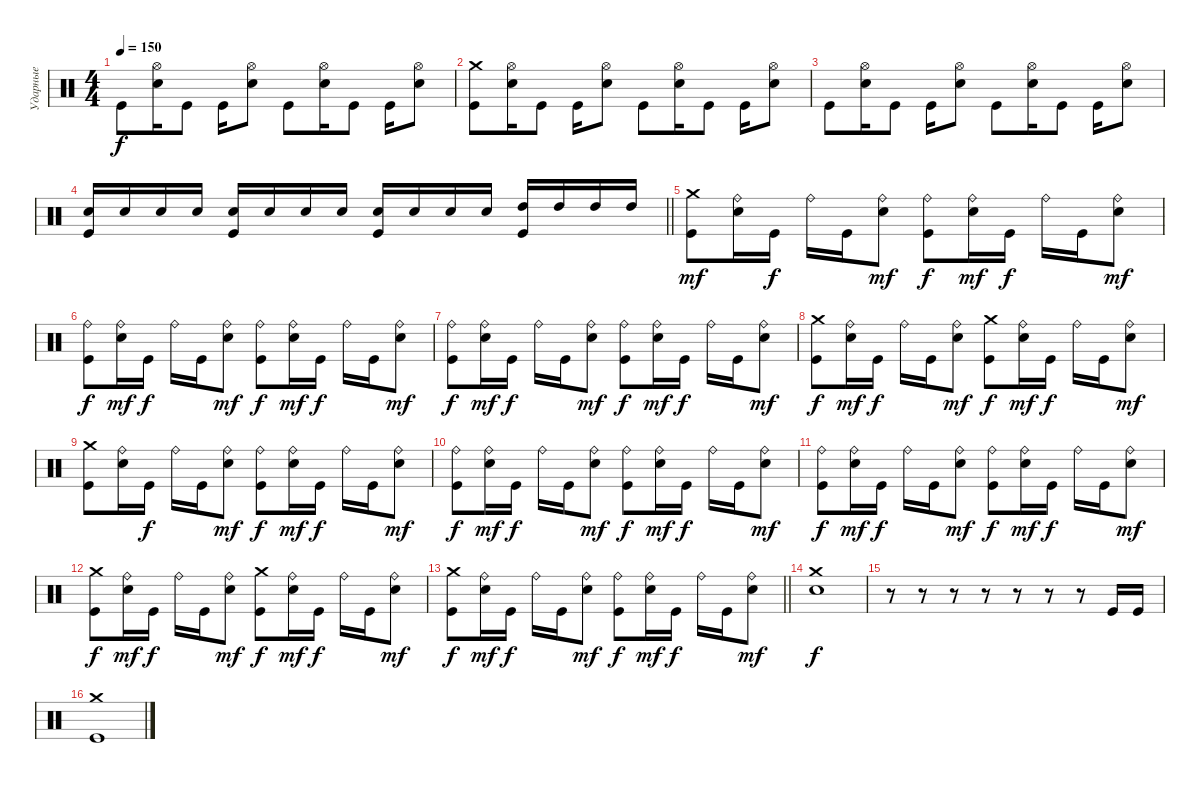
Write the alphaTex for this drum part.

\track ("Ударные" "Ударные") {instrument percussion}
\staff {score}
\articulation defaults
\ts (4 4)
\tempo 150
\clef neutral
\ks c "Kick (hit)".8{dy f}
("Hi-Hat (open)" "Electric Snare (hit)").16 "Kick (hit)".8 "Kick (hit)".16 ("Hi-Hat (open)" "Electric Snare (hit)").8 "Kick (hit)".8 ("Hi-Hat (open)" "Electric Snare (hit)").16 "Kick (hit)".8 "Kick (hit)".16 ("Hi-Hat (open)" "Electric Snare (hit)").8 |
("Crash medium (hit)" "Kick (hit)").8 ("Hi-Hat (open)" "Electric Snare (hit)").16 "Kick (hit)".8 "Kick (hit)".16 ("Hi-Hat (open)" "Electric Snare (hit)").8 "Kick (hit)".8 ("Hi-Hat (open)" "Electric Snare (hit)").16 "Kick (hit)".8 "Kick (hit)".16 ("Hi-Hat (open)" "Electric Snare (hit)").8 |
"Kick (hit)".8 ("Hi-Hat (open)" "Electric Snare (hit)").16 "Kick (hit)".8 "Kick (hit)".16 ("Hi-Hat (open)" "Electric Snare (hit)").8 "Kick (hit)".8 ("Hi-Hat (open)" "Electric Snare (hit)").16 "Kick (hit)".8 "Kick (hit)".16 ("Hi-Hat (open)" "Electric Snare (hit)").8 |
\barLineRight lightlight
("Electric Snare (hit)" "Kick (hit)").16 "Electric Snare (hit)".16 "Electric Snare (hit)".16 "Electric Snare (hit)".16 ("Electric Snare (hit)" "Kick (hit)").16 "Electric Snare (hit)".16 "Electric Snare (hit)".16 "Electric Snare (hit)".16 ("Electric Snare (hit)" "Kick (hit)").16 "Electric Snare (hit)".16 "Electric Snare (hit)".16 "Electric Snare (hit)".16 ("High Tom (hit)" "Kick (hit)").16 "High Tom (hit)".16 "High Tom (hit)".16 "High Tom (hit)".16 |
("Crash medium (hit)" "Kick (hit)").8{dy mf} ("Ride (bell)" "Electric Snare (hit)").16 "Kick (hit)".16{dy f} "Ride (bell)".16 "Kick (hit)".16 ("Ride (bell)" "Electric Snare (hit)").8{dy mf} ("Ride (bell)" "Kick (hit)").8{dy f} ("Ride (bell)" "Electric Snare (hit)").16{dy mf} "Kick (hit)".16{dy f} "Ride (bell)".16 "Kick (hit)".16 ("Ride (bell)" "Electric Snare (hit)").8{dy mf} |
("Ride (bell)" "Kick (hit)").8{dy f} ("Ride (bell)" "Electric Snare (hit)").16{dy mf} "Kick (hit)".16{dy f} "Ride (bell)".16 "Kick (hit)".16 ("Ride (bell)" "Electric Snare (hit)").8{dy mf} ("Ride (bell)" "Kick (hit)").8{dy f} ("Ride (bell)" "Electric Snare (hit)").16{dy mf} "Kick (hit)".16{dy f} "Ride (bell)".16 "Kick (hit)".16 ("Ride (bell)" "Electric Snare (hit)").8{dy mf} |
("Ride (bell)" "Kick (hit)").8{dy f} ("Ride (bell)" "Electric Snare (hit)").16{dy mf} "Kick (hit)".16{dy f} "Ride (bell)".16 "Kick (hit)".16 ("Ride (bell)" "Electric Snare (hit)").8{dy mf} ("Ride (bell)" "Kick (hit)").8{dy f} ("Ride (bell)" "Electric Snare (hit)").16{dy mf} "Kick (hit)".16{dy f} "Ride (bell)".16 "Kick (hit)".16 ("Ride (bell)" "Electric Snare (hit)").8{dy mf} |
("Crash medium (hit)" "Kick (hit)").8{dy f} ("Ride (bell)" "Electric Snare (hit)").16{dy mf} "Kick (hit)".16{dy f} "Ride (bell)".16 "Kick (hit)".16 ("Ride (bell)" "Electric Snare (hit)").8{dy mf} ("Crash medium (hit)" "Kick (hit)").8{dy f} ("Ride (bell)" "Electric Snare (hit)").16{dy mf} "Kick (hit)".16{dy f} "Ride (bell)".16 "Kick (hit)".16 ("Ride (bell)" "Electric Snare (hit)").8{dy mf} |
("Crash medium (hit)" "Kick (hit)").8 ("Ride (bell)" "Electric Snare (hit)").16 "Kick (hit)".16{dy f} "Ride (bell)".16 "Kick (hit)".16 ("Ride (bell)" "Electric Snare (hit)").8{dy mf} ("Ride (bell)" "Kick (hit)").8{dy f} ("Ride (bell)" "Electric Snare (hit)").16{dy mf} "Kick (hit)".16{dy f} "Ride (bell)".16 "Kick (hit)".16 ("Ride (bell)" "Electric Snare (hit)").8{dy mf} |
("Ride (bell)" "Kick (hit)").8{dy f} ("Ride (bell)" "Electric Snare (hit)").16{dy mf} "Kick (hit)".16{dy f} "Ride (bell)".16 "Kick (hit)".16 ("Ride (bell)" "Electric Snare (hit)").8{dy mf} ("Ride (bell)" "Kick (hit)").8{dy f} ("Ride (bell)" "Electric Snare (hit)").16{dy mf} "Kick (hit)".16{dy f} "Ride (bell)".16 "Kick (hit)".16 ("Ride (bell)" "Electric Snare (hit)").8{dy mf} |
("Ride (bell)" "Kick (hit)").8{dy f} ("Ride (bell)" "Electric Snare (hit)").16{dy mf} "Kick (hit)".16{dy f} "Ride (bell)".16 "Kick (hit)".16 ("Ride (bell)" "Electric Snare (hit)").8{dy mf} ("Ride (bell)" "Kick (hit)").8{dy f} ("Ride (bell)" "Electric Snare (hit)").16{dy mf} "Kick (hit)".16{dy f} "Ride (bell)".16 "Kick (hit)".16 ("Ride (bell)" "Electric Snare (hit)").8{dy mf} |
("Crash medium (hit)" "Kick (hit)").8{dy f} ("Ride (bell)" "Electric Snare (hit)").16{dy mf} "Kick (hit)".16{dy f} "Ride (bell)".16 "Kick (hit)".16 ("Ride (bell)" "Electric Snare (hit)").8{dy mf} ("Crash medium (hit)" "Kick (hit)").8{dy f} ("Ride (bell)" "Electric Snare (hit)").16{dy mf} "Kick (hit)".16{dy f} "Ride (bell)".16 "Kick (hit)".16 ("Ride (bell)" "Electric Snare (hit)").8{dy mf} |
\barLineRight lightlight
("Crash medium (hit)" "Kick (hit)").8{dy f} ("Ride (bell)" "Electric Snare (hit)").16{dy mf} "Kick (hit)".16{dy f} "Ride (bell)".16 "Kick (hit)".16 ("Ride (bell)" "Electric Snare (hit)").8{dy mf} ("Ride (bell)" "Kick (hit)").8{dy f} ("Ride (bell)" "Electric Snare (hit)").16{dy mf} "Kick (hit)".16{dy f} "Ride (bell)".16 "Kick (hit)".16 ("Ride (bell)" "Electric Snare (hit)").8{dy mf} |
("Crash medium (hit)" "Electric Snare (hit)").1{dy f} |
r.8 r.8 r.8 r.8 r.8 r.8 r.8 "Kick (hit)".16 "Kick (hit)".16 |
("Crash medium (hit)" "Kick (hit)").1
